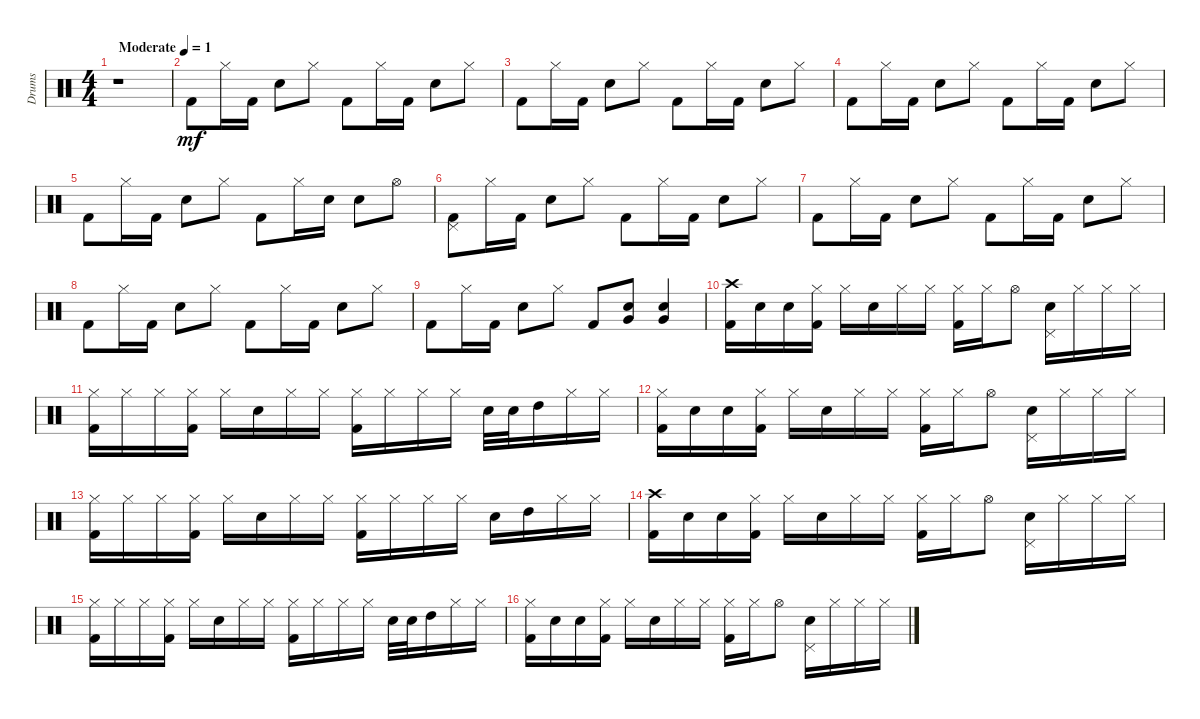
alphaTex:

\track ("Drums" "Drums") {instrument percussion}
\staff {score}
\articulation defaults
\ts (4 4)
\tempo (1 "Moderate")
\clef neutral
\ks c
r.1{dy mf} |
"Kick (hit) 2".8 "Hi-Hat (closed)".16 "Kick (hit) 2".16 "Snare (hit) 2".8 "Hi-Hat (closed)".8 "Kick (hit) 2".8 "Hi-Hat (closed)".16 "Kick (hit) 2".16 "Snare (hit) 2".8 "Hi-Hat (closed)".8 |
"Kick (hit) 2".8 "Hi-Hat (closed)".16 "Kick (hit) 2".16 "Snare (hit) 2".8 "Hi-Hat (closed)".8 "Kick (hit) 2".8 "Hi-Hat (closed)".16 "Kick (hit) 2".16 "Snare (hit) 2".8 "Hi-Hat (closed)".8 |
"Kick (hit) 2".8 "Hi-Hat (closed)".16 "Kick (hit) 2".16 "Snare (hit) 2".8 "Hi-Hat (closed)".8 "Kick (hit) 2".8 "Hi-Hat (closed)".16 "Kick (hit) 2".16 "Snare (hit) 2".8 "Hi-Hat (closed)".8 |
"Kick (hit) 2".8 "Hi-Hat (closed)".16 "Kick (hit) 2".16 "Snare (hit) 2".8 "Hi-Hat (closed)".8 "Kick (hit) 2".8 "Hi-Hat (closed)".16 "Snare (hit) 2".16 "Snare (hit) 2".8 "Hi-Hat (open)".8 |
("Kick (hit) 2" "Pedal Hi-Hat (hit)").8 "Hi-Hat (closed)".16 "Kick (hit) 2".16 "Snare (hit) 2".8 "Hi-Hat (closed)".8 "Kick (hit) 2".8 "Hi-Hat (closed)".16 "Kick (hit) 2".16 "Snare (hit) 2".8 "Hi-Hat (closed)".8 |
"Kick (hit) 2".8 "Hi-Hat (closed)".16 "Kick (hit) 2".16 "Snare (hit) 2".8 "Hi-Hat (closed)".8 "Kick (hit) 2".8 "Hi-Hat (closed)".16 "Kick (hit) 2".16 "Snare (hit) 2".8 "Hi-Hat (closed)".8 |
"Kick (hit) 2".8 "Hi-Hat (closed)".16 "Kick (hit) 2".16 "Snare (hit) 2".8 "Hi-Hat (closed)".8 "Kick (hit) 2".8 "Hi-Hat (closed)".16 "Kick (hit) 2".16 "Snare (hit) 2".8 "Hi-Hat (closed)".8 |
"Kick (hit) 2".8 "Hi-Hat (closed)".16 "Kick (hit) 2".16 "Snare (hit) 2".8 "Hi-Hat (closed)".8 "Kick (hit) 2".8 ("Snare (hit) 2" "Very Low Tom (hit)").8 ("Snare (hit) 2" "Very Low Tom (hit)").4 |
("Kick (hit) 2" "Crash high (hit)").16 "Snare (hit) 2".16 "Snare (hit) 2".16 ("Kick (hit) 2" "Hi-Hat (closed)").16 "Hi-Hat (closed)".16 "Snare (hit) 2".16 "Hi-Hat (closed)".16 "Hi-Hat (closed)".16 ("Kick (hit) 2" "Hi-Hat (closed)").16 "Hi-Hat (closed)".16 "Hi-Hat (open)".8 ("Snare (hit) 2" "Pedal Hi-Hat (hit)").16 "Hi-Hat (closed)".16 "Hi-Hat (closed)".16 "Hi-Hat (closed)".16 |
("Kick (hit) 2" "Hi-Hat (closed)").16 "Hi-Hat (closed)".16 "Hi-Hat (closed)".16 ("Kick (hit) 2" "Hi-Hat (closed)").16 "Hi-Hat (closed)".16 "Snare (hit) 2".16 "Hi-Hat (closed)".16 "Hi-Hat (closed)".16 ("Kick (hit) 2" "Hi-Hat (closed)").16 "Hi-Hat (closed)".16 "Hi-Hat (closed)".16 "Hi-Hat (closed)".16 "Snare (hit) 2".32 "Snare (hit) 2".32 "High Tom (hit)".16 "Hi-Hat (closed)".16 "Hi-Hat (closed)".16 |
("Kick (hit) 2" "Hi-Hat (closed)").16 "Snare (hit) 2".16 "Snare (hit) 2".16 ("Kick (hit) 2" "Hi-Hat (closed)").16 "Hi-Hat (closed)".16 "Snare (hit) 2".16 "Hi-Hat (closed)".16 "Hi-Hat (closed)".16 ("Kick (hit) 2" "Hi-Hat (closed)").16 "Hi-Hat (closed)".16 "Hi-Hat (open)".8 ("Snare (hit) 2" "Pedal Hi-Hat (hit)").16 "Hi-Hat (closed)".16 "Hi-Hat (closed)".16 "Hi-Hat (closed)".16 |
("Kick (hit) 2" "Hi-Hat (closed)").16 "Hi-Hat (closed)".16 "Hi-Hat (closed)".16 ("Kick (hit) 2" "Hi-Hat (closed)").16 "Hi-Hat (closed)".16 "Snare (hit) 2".16 "Hi-Hat (closed)".16 "Hi-Hat (closed)".16 ("Kick (hit) 2" "Hi-Hat (closed)").16 "Hi-Hat (closed)".16 "Hi-Hat (closed)".16 "Hi-Hat (closed)".16 "Snare (hit) 2".16 "High Tom (hit)".16 "Hi-Hat (closed)".16 "Hi-Hat (closed)".16 |
("Kick (hit) 2" "Crash high (hit)").16 "Snare (hit) 2".16 "Snare (hit) 2".16 ("Kick (hit) 2" "Hi-Hat (closed)").16 "Hi-Hat (closed)".16 "Snare (hit) 2".16 "Hi-Hat (closed)".16 "Hi-Hat (closed)".16 ("Kick (hit) 2" "Hi-Hat (closed)").16 "Hi-Hat (closed)".16 "Hi-Hat (open)".8 ("Snare (hit) 2" "Pedal Hi-Hat (hit)").16 "Hi-Hat (closed)".16 "Hi-Hat (closed)".16 "Hi-Hat (closed)".16 |
("Kick (hit) 2" "Hi-Hat (closed)").16 "Hi-Hat (closed)".16 "Hi-Hat (closed)".16 ("Kick (hit) 2" "Hi-Hat (closed)").16 "Hi-Hat (closed)".16 "Snare (hit) 2".16 "Hi-Hat (closed)".16 "Hi-Hat (closed)".16 ("Kick (hit) 2" "Hi-Hat (closed)").16 "Hi-Hat (closed)".16 "Hi-Hat (closed)".16 "Hi-Hat (closed)".16 "Snare (hit) 2".32 "Snare (hit) 2".32 "High Tom (hit)".16 "Hi-Hat (closed)".16 "Hi-Hat (closed)".16 |
("Kick (hit) 2" "Hi-Hat (closed)").16 "Snare (hit) 2".16 "Snare (hit) 2".16 ("Kick (hit) 2" "Hi-Hat (closed)").16 "Hi-Hat (closed)".16 "Snare (hit) 2".16 "Hi-Hat (closed)".16 "Hi-Hat (closed)".16 ("Kick (hit) 2" "Hi-Hat (closed)").16 "Hi-Hat (closed)".16 "Hi-Hat (open)".8 ("Snare (hit) 2" "Pedal Hi-Hat (hit)").16 "Hi-Hat (closed)".16 "Hi-Hat (closed)".16 "Hi-Hat (closed)".16
